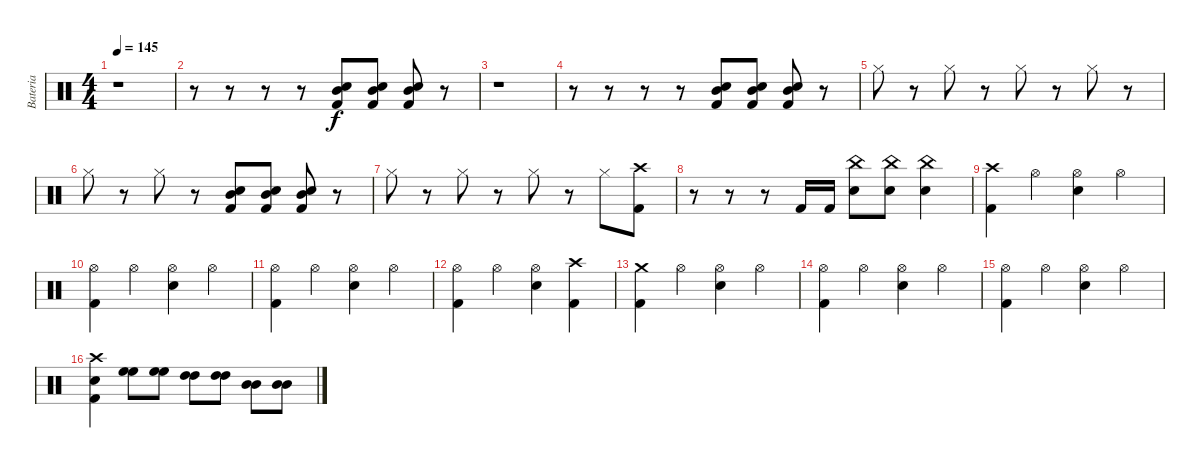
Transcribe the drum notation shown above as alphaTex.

\track ("Bateria" "Bateria") {instrument percussion}
\staff {score}
\articulation defaults
\ts (4 4)
\tempo 145
\clef neutral
\ks c
r.1{dy f} |
r.8 r.8 r.8 r.8 ("Electric Snare (hit)" "Mid Tom (hit)" "Kick (hit) 2").8 ("Electric Snare (hit)" "Mid Tom (hit)" "Kick (hit) 2").8 ("Electric Snare (hit)" "Mid Tom (hit)" "Kick (hit) 2").8 r.8 |
r.1 |
r.8 r.8 r.8 r.8 ("Electric Snare (hit)" "Mid Tom (hit)" "Kick (hit) 2").8 ("Electric Snare (hit)" "Mid Tom (hit)" "Kick (hit) 2").8 ("Electric Snare (hit)" "Mid Tom (hit)" "Kick (hit) 2").8 r.8 |
"Hi-Hat (closed)".8 r.8 "Hi-Hat (closed)".8 r.8 "Hi-Hat (closed)".8 r.8 "Hi-Hat (closed)".8 r.8 |
"Hi-Hat (closed)".8 r.8 "Hi-Hat (closed)".8 r.8 ("Electric Snare (hit)" "Mid Tom (hit)" "Kick (hit) 2").8 ("Electric Snare (hit)" "Mid Tom (hit)" "Kick (hit) 2").8 ("Electric Snare (hit)" "Mid Tom (hit)" "Kick (hit) 2").8 r.8 |
"Hi-Hat (closed)".8 r.8 "Hi-Hat (closed)".8 r.8 "Hi-Hat (closed)".8 r.8 "Hi-Hat (closed)".8 ("Crash high (hit)" "Kick (hit) 2").8 |
r.8 r.8 r.8 "Kick (hit) 2".16 "Kick (hit) 2".16 ("China (hit)" "Electric Snare (hit)").8 ("China (hit)" "Electric Snare (hit)").8 ("China (hit)" "Electric Snare (hit)").4 |
("Crash high (hit)" "Kick (hit) 2").4 "Hi-Hat (open)".4 ("Hi-Hat (open)" "Electric Snare (hit)").4 "Hi-Hat (open)".4 |
("Hi-Hat (open)" "Kick (hit) 2").4 "Hi-Hat (open)".4 ("Hi-Hat (open)" "Electric Snare (hit)").4 "Hi-Hat (open)".4 |
("Hi-Hat (open)" "Kick (hit) 2").4 "Hi-Hat (open)".4 ("Hi-Hat (open)" "Electric Snare (hit)").4 "Hi-Hat (open)".4 |
("Hi-Hat (open)" "Kick (hit) 2").4 "Hi-Hat (open)".4 ("Hi-Hat (open)" "Electric Snare (hit)").4 ("Crash high (hit)" "Kick (hit) 2").4 |
("Crash medium (hit)" "Kick (hit) 2").4 "Hi-Hat (open)".4 ("Hi-Hat (open)" "Electric Snare (hit)").4 "Hi-Hat (open)".4 |
("Hi-Hat (open)" "Kick (hit) 2").4 "Hi-Hat (open)".4 ("Hi-Hat (open)" "Electric Snare (hit)").4 "Hi-Hat (open)".4 |
("Hi-Hat (open)" "Kick (hit) 2").4 "Hi-Hat (open)".4 ("Hi-Hat (open)" "Electric Snare (hit)").4 "Hi-Hat (open)".4 |
("Crash high (hit)" "Electric Snare (hit)" "Kick (hit) 2").4 ("High Floor Tom (hit)" "High Floor Tom (hit)").8 ("High Floor Tom (hit)" "High Floor Tom (hit)").8 ("High Tom (hit)" "High Tom (hit)").8 ("High Tom (hit)" "High Tom (hit)").8 ("Mid Tom (hit)" "Mid Tom (hit)").8 ("Mid Tom (hit)" "Mid Tom (hit)").8
